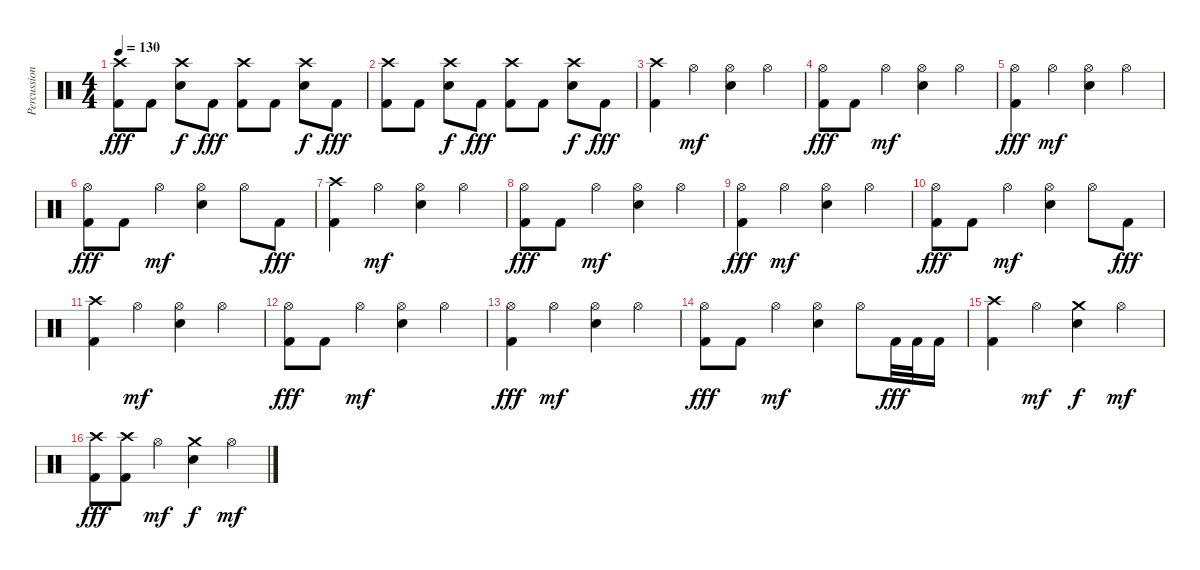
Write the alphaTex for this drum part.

\track ("Percussion" "Percussion") {instrument percussion}
\staff {score}
\articulation defaults
\ts (4 4)
\tempo 130
\clef neutral
\ks c
("Crash high (hit)" "Kick (hit) 2").8{dy fff} "Kick (hit) 2".8 ("Crash high (hit)" "Electric Snare (hit)").8{dy f} "Kick (hit) 2".8{dy fff} ("Crash high (hit)" "Kick (hit) 2").8 "Kick (hit) 2".8 ("Crash high (hit)" "Electric Snare (hit)").8{dy f} "Kick (hit) 2".8{dy fff} |
("Crash high (hit)" "Kick (hit) 2").8 "Kick (hit) 2".8 ("Crash high (hit)" "Electric Snare (hit)").8{dy f} "Kick (hit) 2".8{dy fff} ("Crash high (hit)" "Kick (hit) 2").8 "Kick (hit) 2".8 ("Crash high (hit)" "Electric Snare (hit)").8{dy f} "Kick (hit) 2".8{dy fff} |
("Crash high (hit)" "Kick (hit) 2").4 "Hi-Hat (open)".4{dy mf} ("Hi-Hat (open)" "Electric Snare (hit)").4 "Hi-Hat (open)".4 |
("Hi-Hat (open)" "Kick (hit) 2").8{dy fff} "Kick (hit) 2".8 "Hi-Hat (open)".4{dy mf} ("Hi-Hat (open)" "Electric Snare (hit)").4 "Hi-Hat (open)".4 |
("Hi-Hat (open)" "Kick (hit) 2").4{dy fff} "Hi-Hat (open)".4{dy mf} ("Hi-Hat (open)" "Electric Snare (hit)").4 "Hi-Hat (open)".4 |
("Hi-Hat (open)" "Kick (hit) 2").8{dy fff} "Kick (hit) 2".8 "Hi-Hat (open)".4{dy mf} ("Hi-Hat (open)" "Electric Snare (hit)").4 "Hi-Hat (open)".8 "Kick (hit) 2".8{dy fff} |
("Crash high (hit)" "Kick (hit) 2").4 "Hi-Hat (open)".4{dy mf} ("Hi-Hat (open)" "Electric Snare (hit)").4 "Hi-Hat (open)".4 |
("Hi-Hat (open)" "Kick (hit) 2").8{dy fff} "Kick (hit) 2".8 "Hi-Hat (open)".4{dy mf} ("Hi-Hat (open)" "Electric Snare (hit)").4 "Hi-Hat (open)".4 |
("Hi-Hat (open)" "Kick (hit) 2").4{dy fff} "Hi-Hat (open)".4{dy mf} ("Hi-Hat (open)" "Electric Snare (hit)").4 "Hi-Hat (open)".4 |
("Hi-Hat (open)" "Kick (hit) 2").8{dy fff} "Kick (hit) 2".8 "Hi-Hat (open)".4{dy mf} ("Hi-Hat (open)" "Electric Snare (hit)").4 "Hi-Hat (open)".8 "Kick (hit) 2".8{dy fff} |
("Crash high (hit)" "Kick (hit) 2").4 "Hi-Hat (open)".4{dy mf} ("Hi-Hat (open)" "Electric Snare (hit)").4 "Hi-Hat (open)".4 |
("Hi-Hat (open)" "Kick (hit) 2").8{dy fff} "Kick (hit) 2".8 "Hi-Hat (open)".4{dy mf} ("Hi-Hat (open)" "Electric Snare (hit)").4 "Hi-Hat (open)".4 |
("Hi-Hat (open)" "Kick (hit) 2").4{dy fff} "Hi-Hat (open)".4{dy mf} ("Hi-Hat (open)" "Electric Snare (hit)").4 "Hi-Hat (open)".4 |
("Hi-Hat (open)" "Kick (hit) 2").8{dy fff} "Kick (hit) 2".8 "Hi-Hat (open)".4{dy mf} ("Hi-Hat (open)" "Electric Snare (hit)").4 "Hi-Hat (open)".8 "Kick (hit) 2".32{dy fff} "Kick (hit) 2".32 "Kick (hit) 2".16 |
("Crash high (hit)" "Kick (hit) 2").4 "Hi-Hat (open)".4{dy mf} ("Crash medium (hit)" "Electric Snare (hit)").4{dy f} "Hi-Hat (open)".4{dy mf} |
("Crash high (hit)" "Kick (hit) 2").8{dy fff} ("Crash high (hit)" "Kick (hit) 2").8 "Hi-Hat (open)".4{dy mf} ("Crash medium (hit)" "Electric Snare (hit)").4{dy f} "Hi-Hat (open)".4{dy mf}
